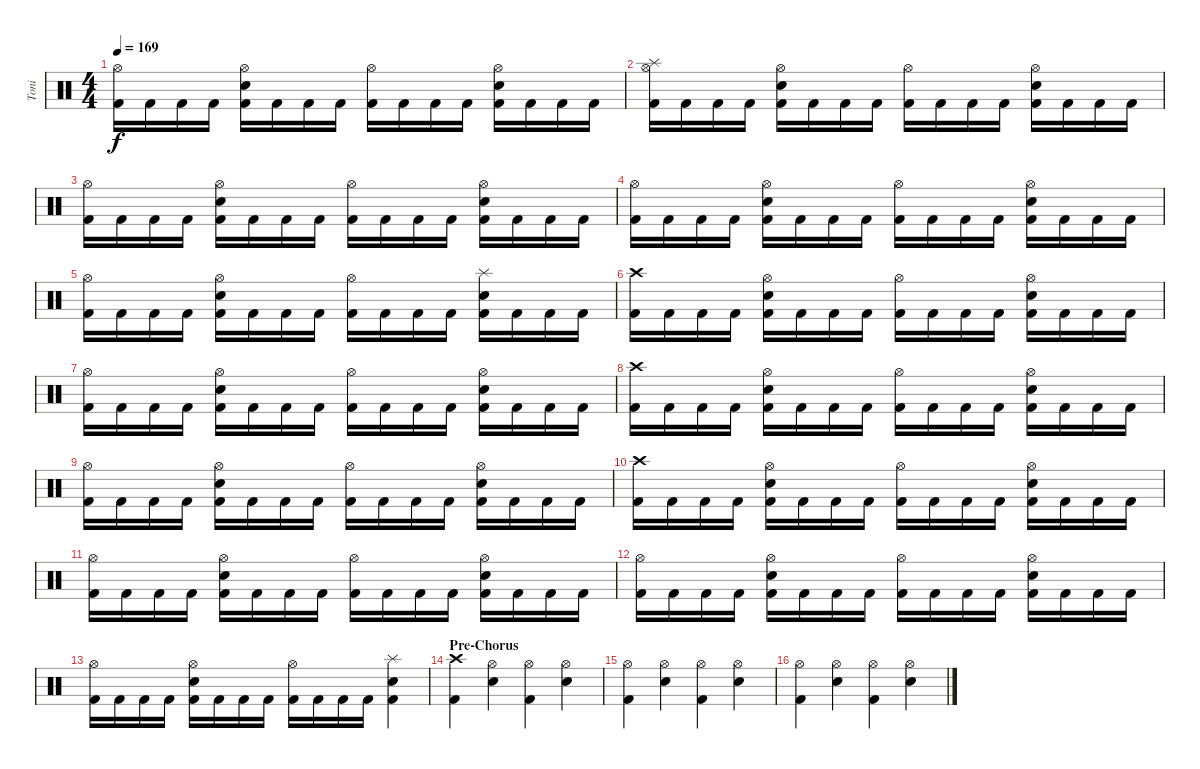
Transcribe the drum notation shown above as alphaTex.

\track ("Toni" "Toni") {instrument percussion}
\staff {score}
\articulation defaults
\ts (4 4)
\tempo 169
\clef neutral
\ks c
("Hi-Hat (open)" "Kick (hit) 2").16{dy f} "Kick (hit) 2".16 "Kick (hit) 2".16 "Kick (hit) 2".16 ("Hi-Hat (open)" "Electric Snare (hit)" "Kick (hit) 2").16 "Kick (hit) 2".16 "Kick (hit) 2".16 "Kick (hit) 2".16 ("Hi-Hat (open)" "Kick (hit) 2").16 "Kick (hit) 2".16 "Kick (hit) 2".16 "Kick (hit) 2".16 ("Hi-Hat (open)" "Electric Snare (hit)" "Kick (hit) 2").16 "Kick (hit) 2".16 "Kick (hit) 2".16 "Kick (hit) 2".16 |
("Splash (hit)" "Hi-Hat (open)" "Kick (hit) 2").16 "Kick (hit) 2".16 "Kick (hit) 2".16 "Kick (hit) 2".16 ("Hi-Hat (open)" "Electric Snare (hit)" "Kick (hit) 2").16 "Kick (hit) 2".16 "Kick (hit) 2".16 "Kick (hit) 2".16 ("Hi-Hat (open)" "Kick (hit) 2").16 "Kick (hit) 2".16 "Kick (hit) 2".16 "Kick (hit) 2".16 ("Hi-Hat (open)" "Electric Snare (hit)" "Kick (hit) 2").16 "Kick (hit) 2".16 "Kick (hit) 2".16 "Kick (hit) 2".16 |
("Hi-Hat (open)" "Kick (hit) 2").16 "Kick (hit) 2".16 "Kick (hit) 2".16 "Kick (hit) 2".16 ("Hi-Hat (open)" "Electric Snare (hit)" "Kick (hit) 2").16 "Kick (hit) 2".16 "Kick (hit) 2".16 "Kick (hit) 2".16 ("Hi-Hat (open)" "Kick (hit) 2").16 "Kick (hit) 2".16 "Kick (hit) 2".16 "Kick (hit) 2".16 ("Hi-Hat (open)" "Electric Snare (hit)" "Kick (hit) 2").16 "Kick (hit) 2".16 "Kick (hit) 2".16 "Kick (hit) 2".16 |
("Hi-Hat (open)" "Kick (hit) 2").16 "Kick (hit) 2".16 "Kick (hit) 2".16 "Kick (hit) 2".16 ("Hi-Hat (open)" "Electric Snare (hit)" "Kick (hit) 2").16 "Kick (hit) 2".16 "Kick (hit) 2".16 "Kick (hit) 2".16 ("Hi-Hat (open)" "Kick (hit) 2").16 "Kick (hit) 2".16 "Kick (hit) 2".16 "Kick (hit) 2".16 ("Hi-Hat (open)" "Electric Snare (hit)" "Kick (hit) 2").16 "Kick (hit) 2".16 "Kick (hit) 2".16 "Kick (hit) 2".16 |
("Hi-Hat (open)" "Kick (hit) 2").16 "Kick (hit) 2".16 "Kick (hit) 2".16 "Kick (hit) 2".16 ("Hi-Hat (open)" "Electric Snare (hit)" "Kick (hit) 2").16 "Kick (hit) 2".16 "Kick (hit) 2".16 "Kick (hit) 2".16 ("Hi-Hat (open)" "Kick (hit) 2").16 "Kick (hit) 2".16 "Kick (hit) 2".16 "Kick (hit) 2".16 ("Splash (hit)" "Electric Snare (hit)" "Kick (hit) 2").16 "Kick (hit) 2".16 "Kick (hit) 2".16 "Kick (hit) 2".16 |
("Crash high (hit)" "Kick (hit) 2").16 "Kick (hit) 2".16 "Kick (hit) 2".16 "Kick (hit) 2".16 ("Hi-Hat (open)" "Electric Snare (hit)" "Kick (hit) 2").16 "Kick (hit) 2".16 "Kick (hit) 2".16 "Kick (hit) 2".16 ("Hi-Hat (open)" "Kick (hit) 2").16 "Kick (hit) 2".16 "Kick (hit) 2".16 "Kick (hit) 2".16 ("Hi-Hat (open)" "Electric Snare (hit)" "Kick (hit) 2").16 "Kick (hit) 2".16 "Kick (hit) 2".16 "Kick (hit) 2".16 |
("Hi-Hat (open)" "Kick (hit) 2").16 "Kick (hit) 2".16 "Kick (hit) 2".16 "Kick (hit) 2".16 ("Hi-Hat (open)" "Electric Snare (hit)" "Kick (hit) 2").16 "Kick (hit) 2".16 "Kick (hit) 2".16 "Kick (hit) 2".16 ("Hi-Hat (open)" "Kick (hit) 2").16 "Kick (hit) 2".16 "Kick (hit) 2".16 "Kick (hit) 2".16 ("Hi-Hat (open)" "Electric Snare (hit)" "Kick (hit) 2").16 "Kick (hit) 2".16 "Kick (hit) 2".16 "Kick (hit) 2".16 |
("Crash high (hit)" "Kick (hit) 2").16 "Kick (hit) 2".16 "Kick (hit) 2".16 "Kick (hit) 2".16 ("Hi-Hat (open)" "Electric Snare (hit)" "Kick (hit) 2").16 "Kick (hit) 2".16 "Kick (hit) 2".16 "Kick (hit) 2".16 ("Hi-Hat (open)" "Kick (hit) 2").16 "Kick (hit) 2".16 "Kick (hit) 2".16 "Kick (hit) 2".16 ("Hi-Hat (open)" "Electric Snare (hit)" "Kick (hit) 2").16 "Kick (hit) 2".16 "Kick (hit) 2".16 "Kick (hit) 2".16 |
("Hi-Hat (open)" "Kick (hit) 2").16 "Kick (hit) 2".16 "Kick (hit) 2".16 "Kick (hit) 2".16 ("Hi-Hat (open)" "Electric Snare (hit)" "Kick (hit) 2").16 "Kick (hit) 2".16 "Kick (hit) 2".16 "Kick (hit) 2".16 ("Hi-Hat (open)" "Kick (hit) 2").16 "Kick (hit) 2".16 "Kick (hit) 2".16 "Kick (hit) 2".16 ("Hi-Hat (open)" "Electric Snare (hit)" "Kick (hit) 2").16 "Kick (hit) 2".16 "Kick (hit) 2".16 "Kick (hit) 2".16 |
("Crash high (hit)" "Kick (hit) 2").16 "Kick (hit) 2".16 "Kick (hit) 2".16 "Kick (hit) 2".16 ("Hi-Hat (open)" "Electric Snare (hit)" "Kick (hit) 2").16 "Kick (hit) 2".16 "Kick (hit) 2".16 "Kick (hit) 2".16 ("Hi-Hat (open)" "Kick (hit) 2").16 "Kick (hit) 2".16 "Kick (hit) 2".16 "Kick (hit) 2".16 ("Hi-Hat (open)" "Electric Snare (hit)" "Kick (hit) 2").16 "Kick (hit) 2".16 "Kick (hit) 2".16 "Kick (hit) 2".16 |
("Hi-Hat (open)" "Kick (hit) 2").16 "Kick (hit) 2".16 "Kick (hit) 2".16 "Kick (hit) 2".16 ("Hi-Hat (open)" "Electric Snare (hit)" "Kick (hit) 2").16 "Kick (hit) 2".16 "Kick (hit) 2".16 "Kick (hit) 2".16 ("Hi-Hat (open)" "Kick (hit) 2").16 "Kick (hit) 2".16 "Kick (hit) 2".16 "Kick (hit) 2".16 ("Hi-Hat (open)" "Electric Snare (hit)" "Kick (hit) 2").16 "Kick (hit) 2".16 "Kick (hit) 2".16 "Kick (hit) 2".16 |
("Hi-Hat (open)" "Kick (hit) 2").16 "Kick (hit) 2".16 "Kick (hit) 2".16 "Kick (hit) 2".16 ("Hi-Hat (open)" "Electric Snare (hit)" "Kick (hit) 2").16 "Kick (hit) 2".16 "Kick (hit) 2".16 "Kick (hit) 2".16 ("Hi-Hat (open)" "Kick (hit) 2").16 "Kick (hit) 2".16 "Kick (hit) 2".16 "Kick (hit) 2".16 ("Hi-Hat (open)" "Electric Snare (hit)" "Kick (hit) 2").16 "Kick (hit) 2".16 "Kick (hit) 2".16 "Kick (hit) 2".16 |
("Hi-Hat (open)" "Kick (hit) 2").16 "Kick (hit) 2".16 "Kick (hit) 2".16 "Kick (hit) 2".16 ("Hi-Hat (open)" "Electric Snare (hit)" "Kick (hit) 2").16 "Kick (hit) 2".16 "Kick (hit) 2".16 "Kick (hit) 2".16 ("Hi-Hat (open)" "Kick (hit) 2").16 "Kick (hit) 2".16 "Kick (hit) 2".16 "Kick (hit) 2".16 ("Splash (hit)" "Electric Snare (hit)" "Kick (hit) 2").4 |
\section ("" "Pre-Chorus")
("Crash high (hit)" "Kick (hit) 2").4 ("Hi-Hat (open)" "Electric Snare (hit)").4 ("Hi-Hat (open)" "Kick (hit) 2").4 ("Hi-Hat (open)" "Electric Snare (hit)").4 |
("Hi-Hat (open)" "Kick (hit) 2").4 ("Hi-Hat (open)" "Electric Snare (hit)").4 ("Hi-Hat (open)" "Kick (hit) 2").4 ("Hi-Hat (open)" "Electric Snare (hit)").4 |
("Hi-Hat (open)" "Kick (hit) 2").4 ("Hi-Hat (open)" "Electric Snare (hit)").4 ("Hi-Hat (open)" "Kick (hit) 2").4 ("Hi-Hat (open)" "Electric Snare (hit)").4
